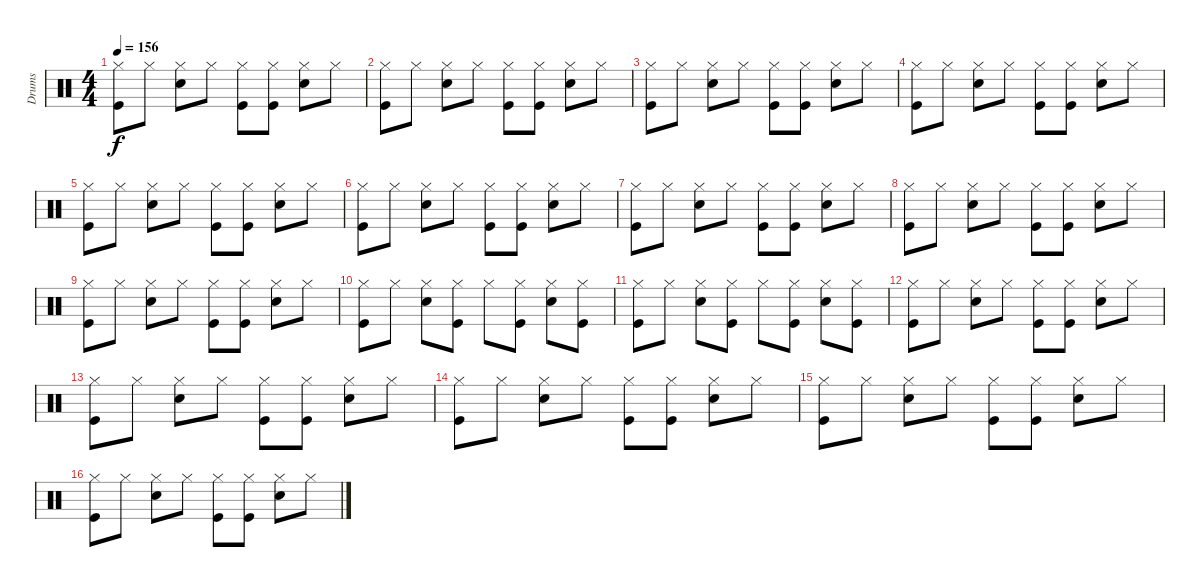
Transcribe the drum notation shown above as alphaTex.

\track ("Drums" "Drums") {instrument percussion}
\staff {score}
\articulation defaults
\ts (4 4)
\tempo 156
\clef neutral
\ks c
("Kick (hit)" "Hi-Hat (closed)").8{dy f} "Hi-Hat (closed)".8 ("Snare (hit) 2" "Hi-Hat (closed)").8 "Hi-Hat (closed)".8 ("Kick (hit)" "Hi-Hat (closed)").8 ("Kick (hit)" "Hi-Hat (closed)").8 ("Snare (hit) 2" "Hi-Hat (closed)").8 "Hi-Hat (closed)".8 |
("Kick (hit)" "Hi-Hat (closed)").8 "Hi-Hat (closed)".8 ("Snare (hit) 2" "Hi-Hat (closed)").8 "Hi-Hat (closed)".8 ("Kick (hit)" "Hi-Hat (closed)").8 ("Kick (hit)" "Hi-Hat (closed)").8 ("Snare (hit) 2" "Hi-Hat (closed)").8 "Hi-Hat (closed)".8 |
("Kick (hit)" "Hi-Hat (closed)").8 "Hi-Hat (closed)".8 ("Snare (hit) 2" "Hi-Hat (closed)").8 "Hi-Hat (closed)".8 ("Kick (hit)" "Hi-Hat (closed)").8 ("Kick (hit)" "Hi-Hat (closed)").8 ("Snare (hit) 2" "Hi-Hat (closed)").8 "Hi-Hat (closed)".8 |
("Kick (hit)" "Hi-Hat (closed)").8 "Hi-Hat (closed)".8 ("Snare (hit) 2" "Hi-Hat (closed)").8 "Hi-Hat (closed)".8 ("Kick (hit)" "Hi-Hat (closed)").8 ("Kick (hit)" "Hi-Hat (closed)").8 ("Snare (hit) 2" "Hi-Hat (closed)").8 "Hi-Hat (closed)".8 |
("Kick (hit)" "Hi-Hat (closed)").8 "Hi-Hat (closed)".8 ("Snare (hit) 2" "Hi-Hat (closed)").8 "Hi-Hat (closed)".8 ("Kick (hit)" "Hi-Hat (closed)").8 ("Kick (hit)" "Hi-Hat (closed)").8 ("Snare (hit) 2" "Hi-Hat (closed)").8 "Hi-Hat (closed)".8 |
("Kick (hit)" "Hi-Hat (closed)").8 "Hi-Hat (closed)".8 ("Snare (hit) 2" "Hi-Hat (closed)").8 "Hi-Hat (closed)".8 ("Kick (hit)" "Hi-Hat (closed)").8 ("Kick (hit)" "Hi-Hat (closed)").8 ("Snare (hit) 2" "Hi-Hat (closed)").8 "Hi-Hat (closed)".8 |
("Kick (hit)" "Hi-Hat (closed)").8 "Hi-Hat (closed)".8 ("Snare (hit) 2" "Hi-Hat (closed)").8 "Hi-Hat (closed)".8 ("Kick (hit)" "Hi-Hat (closed)").8 ("Kick (hit)" "Hi-Hat (closed)").8 ("Snare (hit) 2" "Hi-Hat (closed)").8 "Hi-Hat (closed)".8 |
("Kick (hit)" "Hi-Hat (closed)").8 "Hi-Hat (closed)".8 ("Snare (hit) 2" "Hi-Hat (closed)").8 "Hi-Hat (closed)".8 ("Kick (hit)" "Hi-Hat (closed)").8 ("Kick (hit)" "Hi-Hat (closed)").8 ("Snare (hit) 2" "Hi-Hat (closed)").8 "Hi-Hat (closed)".8 |
("Kick (hit)" "Hi-Hat (closed)").8 "Hi-Hat (closed)".8 ("Snare (hit) 2" "Hi-Hat (closed)").8 "Hi-Hat (closed)".8 ("Kick (hit)" "Hi-Hat (closed)").8 ("Kick (hit)" "Hi-Hat (closed)").8 ("Snare (hit) 2" "Hi-Hat (closed)").8 "Hi-Hat (closed)".8 |
("Kick (hit)" "Hi-Hat (closed)").8 "Hi-Hat (closed)".8 ("Snare (hit) 2" "Hi-Hat (closed)").8 ("Kick (hit)" "Hi-Hat (closed)").8 "Hi-Hat (closed)".8 ("Kick (hit)" "Hi-Hat (closed)").8 ("Snare (hit) 2" "Hi-Hat (closed)").8 ("Kick (hit)" "Hi-Hat (closed)").8 |
("Kick (hit)" "Hi-Hat (closed)").8 "Hi-Hat (closed)".8 ("Snare (hit) 2" "Hi-Hat (closed)").8 ("Kick (hit)" "Hi-Hat (closed)").8 "Hi-Hat (closed)".8 ("Kick (hit)" "Hi-Hat (closed)").8 ("Snare (hit) 2" "Hi-Hat (closed)").8 ("Kick (hit)" "Hi-Hat (closed)").8 |
("Kick (hit)" "Hi-Hat (closed)").8 "Hi-Hat (closed)".8 ("Snare (hit) 2" "Hi-Hat (closed)").8 "Hi-Hat (closed)".8 ("Kick (hit)" "Hi-Hat (closed)").8 ("Kick (hit)" "Hi-Hat (closed)").8 ("Snare (hit) 2" "Hi-Hat (closed)").8 "Hi-Hat (closed)".8 |
("Kick (hit)" "Hi-Hat (closed)").8 "Hi-Hat (closed)".8 ("Snare (hit) 2" "Hi-Hat (closed)").8 "Hi-Hat (closed)".8 ("Kick (hit)" "Hi-Hat (closed)").8 ("Kick (hit)" "Hi-Hat (closed)").8 ("Snare (hit) 2" "Hi-Hat (closed)").8 "Hi-Hat (closed)".8 |
("Kick (hit)" "Hi-Hat (closed)").8 "Hi-Hat (closed)".8 ("Snare (hit) 2" "Hi-Hat (closed)").8 "Hi-Hat (closed)".8 ("Kick (hit)" "Hi-Hat (closed)").8 ("Kick (hit)" "Hi-Hat (closed)").8 ("Snare (hit) 2" "Hi-Hat (closed)").8 "Hi-Hat (closed)".8 |
("Kick (hit)" "Hi-Hat (closed)").8 "Hi-Hat (closed)".8 ("Snare (hit) 2" "Hi-Hat (closed)").8 "Hi-Hat (closed)".8 ("Kick (hit)" "Hi-Hat (closed)").8 ("Kick (hit)" "Hi-Hat (closed)").8 ("Snare (hit) 2" "Hi-Hat (closed)").8 "Hi-Hat (closed)".8 |
("Kick (hit)" "Hi-Hat (closed)").8 "Hi-Hat (closed)".8 ("Snare (hit) 2" "Hi-Hat (closed)").8 "Hi-Hat (closed)".8 ("Kick (hit)" "Hi-Hat (closed)").8 ("Kick (hit)" "Hi-Hat (closed)").8 ("Snare (hit) 2" "Hi-Hat (closed)").8 "Hi-Hat (closed)".8
